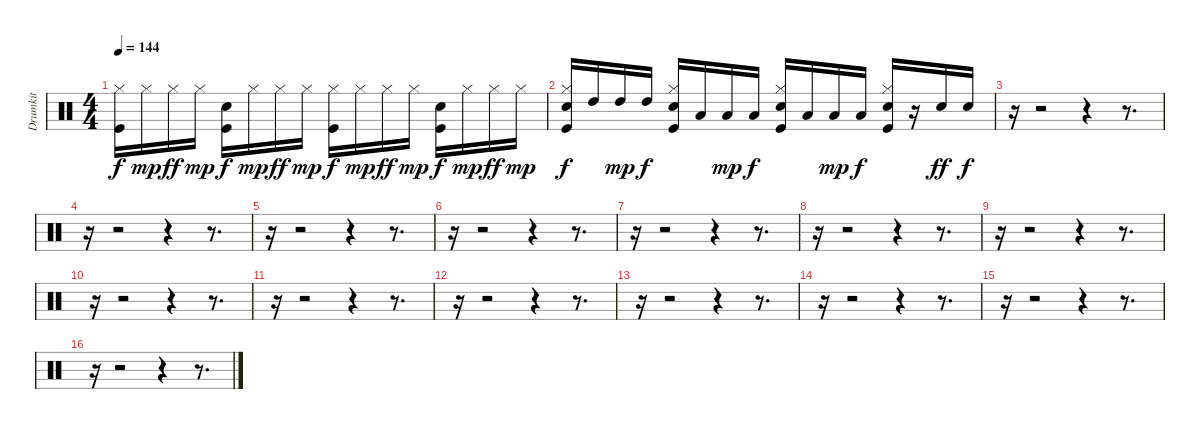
\track ("Drumkit" "Drumkit") {instrument percussion}
\staff {score}
\articulation defaults
\ts (4 4)
\tempo 144
\clef neutral
\ks c
("Kick (hit)" "Hi-Hat (closed)").16{dy f} "Hi-Hat (closed)".16{dy mp} "Hi-Hat (closed)".16{dy ff} "Hi-Hat (closed)".16{dy mp} ("Kick (hit)" "Snare (hit) 2").16{dy f} "Hi-Hat (closed)".16{dy mp} "Hi-Hat (closed)".16{dy ff} "Hi-Hat (closed)".16{dy mp} ("Kick (hit)" "Hi-Hat (closed)").16{dy f} "Hi-Hat (closed)".16{dy mp} "Hi-Hat (closed)".16{dy ff} "Hi-Hat (closed)".16{dy mp} ("Kick (hit)" "Snare (hit) 2").16{dy f} "Hi-Hat (closed)".16{dy mp} "Hi-Hat (closed)".16{dy ff} "Hi-Hat (closed)".16{dy mp} |
("Kick (hit)" "Snare (hit) 2" "Hi-Hat (closed)").16{dy f} "High Tom (hit)".16 "High Tom (hit)".16{dy mp} "High Tom (hit)".16{dy f} ("Kick (hit)" "Snare (hit) 2" "Hi-Hat (closed)").16 "Low Tom (hit)".16 "Low Tom (hit)".16{dy mp} "Low Tom (hit)".16{dy f} ("Kick (hit)" "Snare (hit) 2" "Hi-Hat (closed)").16 "Low Floor Tom (hit)".16 "Low Floor Tom (hit)".16{dy mp} "Low Floor Tom (hit)".16{dy f} ("Kick (hit)" "Snare (hit) 2" "Hi-Hat (closed)").16 r.16 "Snare (hit) 2".16{dy ff} "Snare (hit) 2".16{dy f} |
r.16 r.2 r.4 r.8{d} |
r.16 r.2 r.4 r.8{d} |
r.16 r.2 r.4 r.8{d} |
r.16 r.2 r.4 r.8{d} |
r.16 r.2 r.4 r.8{d} |
r.16 r.2 r.4 r.8{d} |
r.16 r.2 r.4 r.8{d} |
r.16 r.2 r.4 r.8{d} |
r.16 r.2 r.4 r.8{d} |
r.16 r.2 r.4 r.8{d} |
r.16 r.2 r.4 r.8{d} |
r.16 r.2 r.4 r.8{d} |
r.16 r.2 r.4 r.8{d} |
r.16 r.2 r.4 r.8{d}
